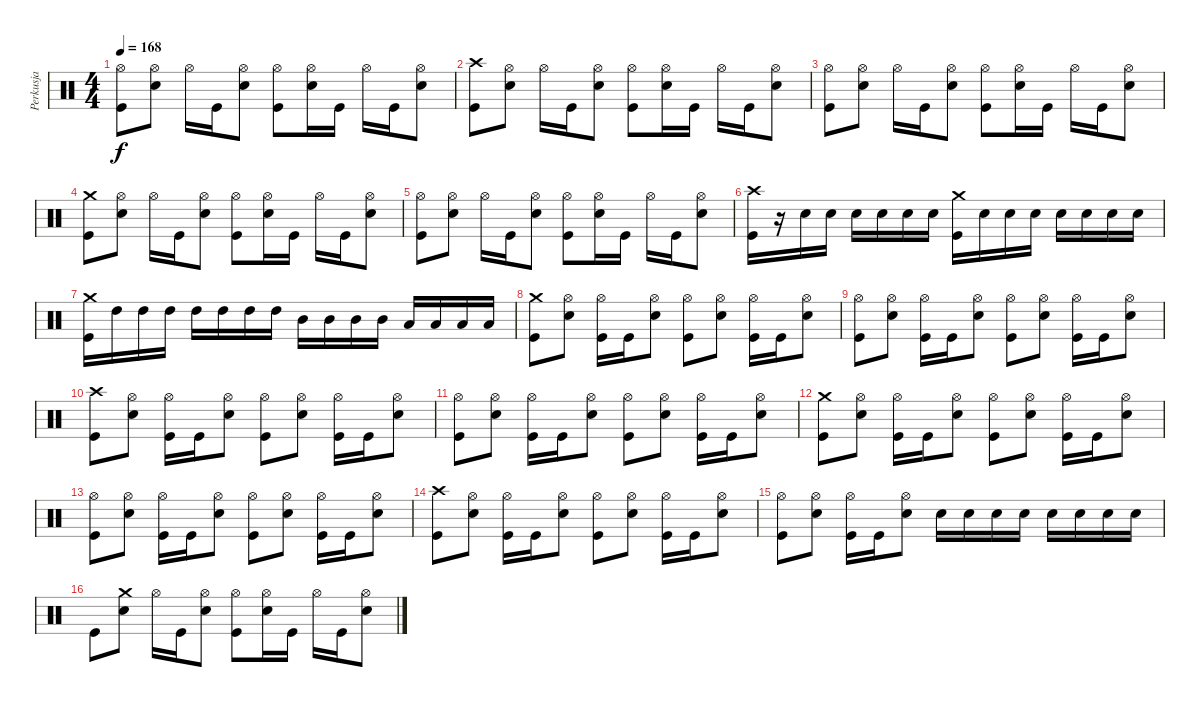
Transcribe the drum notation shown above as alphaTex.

\track ("Perkusja" "Perkusja") {instrument percussion}
\staff {score}
\articulation defaults
\ts (4 4)
\tempo 168
\clef neutral
\ks c
("Kick (hit)" "Hi-Hat (open)").8{dy f} ("Hi-Hat (open)" "Snare (hit) 2").8 "Hi-Hat (open)".16 "Kick (hit)".16 ("Hi-Hat (open)" "Snare (hit) 2").8 ("Kick (hit)" "Hi-Hat (open)").8 ("Hi-Hat (open)" "Snare (hit) 2").16 "Kick (hit)".16 "Hi-Hat (open)".16 "Kick (hit)".16 ("Hi-Hat (open)" "Snare (hit) 2").8 |
("Kick (hit)" "Crash high (hit)").8 ("Hi-Hat (open)" "Snare (hit) 2").8 "Hi-Hat (open)".16 "Kick (hit)".16 ("Hi-Hat (open)" "Snare (hit) 2").8 ("Kick (hit)" "Hi-Hat (open)").8 ("Hi-Hat (open)" "Snare (hit) 2").16 "Kick (hit)".16 "Hi-Hat (open)".16 "Kick (hit)".16 ("Hi-Hat (open)" "Snare (hit) 2").8 |
("Kick (hit)" "Hi-Hat (open)").8 ("Hi-Hat (open)" "Snare (hit) 2").8 "Hi-Hat (open)".16 "Kick (hit)".16 ("Hi-Hat (open)" "Snare (hit) 2").8 ("Kick (hit)" "Hi-Hat (open)").8 ("Hi-Hat (open)" "Snare (hit) 2").16 "Kick (hit)".16 "Hi-Hat (open)".16 "Kick (hit)".16 ("Hi-Hat (open)" "Snare (hit) 2").8 |
("Kick (hit)" "Crash medium (hit)").8 ("Hi-Hat (open)" "Snare (hit) 2").8 "Hi-Hat (open)".16 "Kick (hit)".16 ("Hi-Hat (open)" "Snare (hit) 2").8 ("Kick (hit)" "Hi-Hat (open)").8 ("Hi-Hat (open)" "Snare (hit) 2").16 "Kick (hit)".16 "Hi-Hat (open)".16 "Kick (hit)".16 ("Hi-Hat (open)" "Snare (hit) 2").8 |
("Kick (hit)" "Hi-Hat (open)").8 ("Hi-Hat (open)" "Snare (hit) 2").8 "Hi-Hat (open)".16 "Kick (hit)".16 ("Hi-Hat (open)" "Snare (hit) 2").8 ("Kick (hit)" "Hi-Hat (open)").8 ("Hi-Hat (open)" "Snare (hit) 2").16 "Kick (hit)".16 "Hi-Hat (open)".16 "Kick (hit)".16 ("Hi-Hat (open)" "Snare (hit) 2").8 |
("Kick (hit)" "Crash high (hit)").16 r.16 "Snare (hit) 2".16 "Snare (hit) 2".16 "Snare (hit) 2".16 "Snare (hit) 2".16 "Snare (hit) 2".16 "Snare (hit) 2".16 ("Kick (hit)" "Crash medium (hit)").16 "Snare (hit) 2".16 "Snare (hit) 2".16 "Snare (hit) 2".16 "Snare (hit) 2".16 "Snare (hit) 2".16 "Snare (hit) 2".16 "Snare (hit) 2".16 |
("Kick (hit)" "Crash medium (hit)").16 "High Tom (hit)".16 "High Tom (hit)".16 "High Tom (hit)".16 "High Tom (hit)".16 "High Tom (hit)".16 "High Tom (hit)".16 "High Tom (hit)".16 "Mid Tom (hit)".16 "Mid Tom (hit)".16 "Mid Tom (hit)".16 "Mid Tom (hit)".16 "Low Tom (hit)".16 "Low Tom (hit)".16 "Low Tom (hit)".16 "Low Tom (hit)".16 |
("Kick (hit)" "Crash medium (hit)").8 ("Hi-Hat (open)" "Snare (hit) 2").8 ("Kick (hit)" "Hi-Hat (open)").16 "Kick (hit)".16 ("Hi-Hat (open)" "Snare (hit) 2").8 ("Kick (hit)" "Hi-Hat (open)").8 ("Hi-Hat (open)" "Snare (hit) 2").8 ("Kick (hit)" "Hi-Hat (open)").16 "Kick (hit)".16 ("Hi-Hat (open)" "Snare (hit) 2").8 |
("Kick (hit)" "Hi-Hat (open)").8 ("Hi-Hat (open)" "Snare (hit) 2").8 ("Kick (hit)" "Hi-Hat (open)").16 "Kick (hit)".16 ("Hi-Hat (open)" "Snare (hit) 2").8 ("Kick (hit)" "Hi-Hat (open)").8 ("Hi-Hat (open)" "Snare (hit) 2").8 ("Kick (hit)" "Hi-Hat (open)").16 "Kick (hit)".16 ("Hi-Hat (open)" "Snare (hit) 2").8 |
("Kick (hit)" "Crash high (hit)").8 ("Hi-Hat (open)" "Snare (hit) 2").8 ("Kick (hit)" "Hi-Hat (open)").16 "Kick (hit)".16 ("Hi-Hat (open)" "Snare (hit) 2").8 ("Kick (hit)" "Hi-Hat (open)").8 ("Hi-Hat (open)" "Snare (hit) 2").8 ("Kick (hit)" "Hi-Hat (open)").16 "Kick (hit)".16 ("Hi-Hat (open)" "Snare (hit) 2").8 |
("Kick (hit)" "Hi-Hat (open)").8 ("Hi-Hat (open)" "Snare (hit) 2").8 ("Kick (hit)" "Hi-Hat (open)").16 "Kick (hit)".16 ("Hi-Hat (open)" "Snare (hit) 2").8 ("Kick (hit)" "Hi-Hat (open)").8 ("Hi-Hat (open)" "Snare (hit) 2").8 ("Kick (hit)" "Hi-Hat (open)").16 "Kick (hit)".16 ("Hi-Hat (open)" "Snare (hit) 2").8 |
("Kick (hit)" "Crash medium (hit)").8 ("Hi-Hat (open)" "Snare (hit) 2").8 ("Kick (hit)" "Hi-Hat (open)").16 "Kick (hit)".16 ("Hi-Hat (open)" "Snare (hit) 2").8 ("Kick (hit)" "Hi-Hat (open)").8 ("Hi-Hat (open)" "Snare (hit) 2").8 ("Kick (hit)" "Hi-Hat (open)").16 "Kick (hit)".16 ("Hi-Hat (open)" "Snare (hit) 2").8 |
("Kick (hit)" "Hi-Hat (open)").8 ("Hi-Hat (open)" "Snare (hit) 2").8 ("Kick (hit)" "Hi-Hat (open)").16 "Kick (hit)".16 ("Hi-Hat (open)" "Snare (hit) 2").8 ("Kick (hit)" "Hi-Hat (open)").8 ("Hi-Hat (open)" "Snare (hit) 2").8 ("Kick (hit)" "Hi-Hat (open)").16 "Kick (hit)".16 ("Hi-Hat (open)" "Snare (hit) 2").8 |
("Kick (hit)" "Crash high (hit)").8 ("Hi-Hat (open)" "Snare (hit) 2").8 ("Kick (hit)" "Hi-Hat (open)").16 "Kick (hit)".16 ("Hi-Hat (open)" "Snare (hit) 2").8 ("Kick (hit)" "Hi-Hat (open)").8 ("Hi-Hat (open)" "Snare (hit) 2").8 ("Kick (hit)" "Hi-Hat (open)").16 "Kick (hit)".16 ("Hi-Hat (open)" "Snare (hit) 2").8 |
("Kick (hit)" "Hi-Hat (open)").8 ("Hi-Hat (open)" "Snare (hit) 2").8 ("Kick (hit)" "Hi-Hat (open)").16 "Kick (hit)".16 ("Hi-Hat (open)" "Snare (hit) 2").8 "Snare (hit) 2".16 "Snare (hit) 2".16 "Snare (hit) 2".16 "Snare (hit) 2".16 "Snare (hit) 2".16 "Snare (hit) 2".16 "Snare (hit) 2".16 "Snare (hit) 2".16 |
"Kick (hit)".8 ("Crash medium (hit)" "Snare (hit) 2").8 "Hi-Hat (open)".16 "Kick (hit)".16 ("Hi-Hat (open)" "Snare (hit) 2").8 ("Kick (hit)" "Hi-Hat (open)").8 ("Hi-Hat (open)" "Snare (hit) 2").16 "Kick (hit)".16 "Hi-Hat (open)".16 "Kick (hit)".16 ("Hi-Hat (open)" "Snare (hit) 2").8
